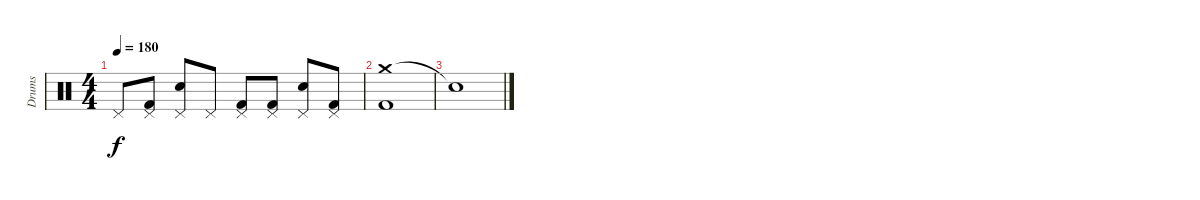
\track ("Drums" "Drums") {instrument percussion}
\staff {score}
\articulation defaults
\ts (4 4)
\tempo 180
\clef neutral
\ks c "Pedal Hi-Hat (hit)".8{dy f}
("Pedal Hi-Hat (hit)" "Kick (hit) 2").8 ("Pedal Hi-Hat (hit)" "Electric Snare (hit)").8 "Pedal Hi-Hat (hit)".8 ("Pedal Hi-Hat (hit)" "Kick (hit) 2").8 ("Pedal Hi-Hat (hit)" "Kick (hit) 2").8 ("Pedal Hi-Hat (hit)" "Electric Snare (hit)").8 ("Pedal Hi-Hat (hit)" "Kick (hit) 2").8 |
("Crash medium (hit)" "Kick (hit) 2").1 |
"Snare (hit)"{t}.1
